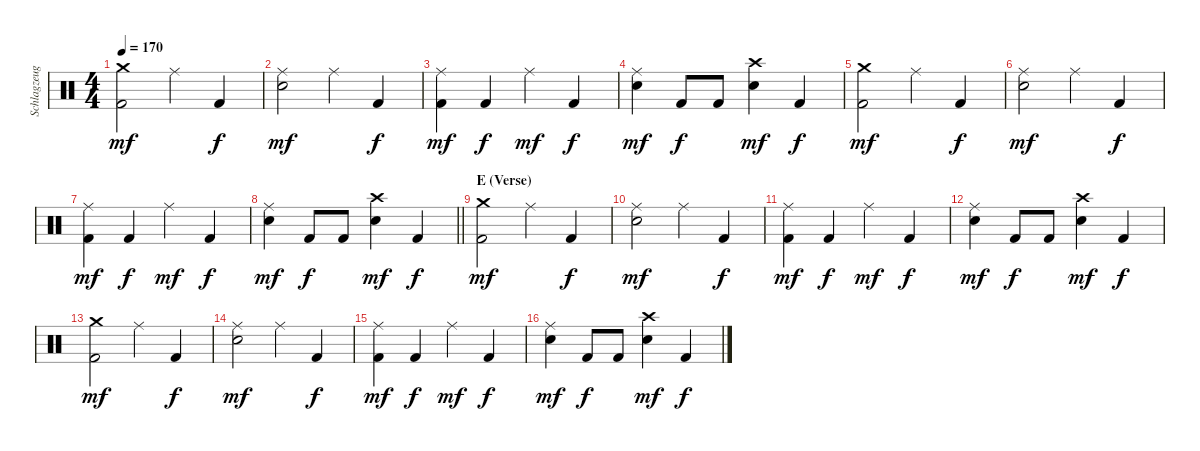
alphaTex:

\track ("Schlagzeug" "Schlagzeug") {instrument percussion}
\staff {score}
\articulation defaults
\ts (4 4)
\tempo 170
\clef neutral
\ks c
("Crash medium (hit)" "Kick (hit) 2").2{dy mf} "Ride (middle)".4 "Kick (hit) 2".4{dy f} |
("Ride (middle)" "Electric Snare (hit)").2{dy mf} "Ride (middle)".4 "Kick (hit) 2".4{dy f} |
("Ride (middle)" "Kick (hit) 2").4{dy mf} "Kick (hit) 2".4{dy f} "Ride (middle)".4{dy mf} "Kick (hit) 2".4{dy f} |
("Ride (middle)" "Electric Snare (hit)").4{dy mf} "Kick (hit) 2".8{dy f} "Kick (hit) 2".8 ("Crash high (hit)" "Electric Snare (hit)").4{dy mf} "Kick (hit) 2".4{dy f} |
("Crash medium (hit)" "Kick (hit) 2").2{dy mf} "Ride (middle)".4 "Kick (hit) 2".4{dy f} |
("Ride (middle)" "Electric Snare (hit)").2{dy mf} "Ride (middle)".4 "Kick (hit) 2".4{dy f} |
("Ride (middle)" "Kick (hit) 2").4{dy mf} "Kick (hit) 2".4{dy f} "Ride (middle)".4{dy mf} "Kick (hit) 2".4{dy f} |
\barLineRight lightlight
("Ride (middle)" "Electric Snare (hit)").4{dy mf} "Kick (hit) 2".8{dy f} "Kick (hit) 2".8 ("Crash high (hit)" "Electric Snare (hit)").4{dy mf} "Kick (hit) 2".4{dy f} |
\section ("" "E (Verse)  ")
("Crash medium (hit)" "Kick (hit) 2").2{dy mf} "Ride (middle)".4 "Kick (hit) 2".4{dy f} |
("Ride (middle)" "Electric Snare (hit)").2{dy mf} "Ride (middle)".4 "Kick (hit) 2".4{dy f} |
("Ride (middle)" "Kick (hit) 2").4{dy mf} "Kick (hit) 2".4{dy f} "Ride (middle)".4{dy mf} "Kick (hit) 2".4{dy f} |
("Ride (middle)" "Electric Snare (hit)").4{dy mf} "Kick (hit) 2".8{dy f} "Kick (hit) 2".8 ("Crash high (hit)" "Electric Snare (hit)").4{dy mf} "Kick (hit) 2".4{dy f} |
("Crash medium (hit)" "Kick (hit) 2").2{dy mf} "Ride (middle)".4 "Kick (hit) 2".4{dy f} |
("Ride (middle)" "Electric Snare (hit)").2{dy mf} "Ride (middle)".4 "Kick (hit) 2".4{dy f} |
("Ride (middle)" "Kick (hit) 2").4{dy mf} "Kick (hit) 2".4{dy f} "Ride (middle)".4{dy mf} "Kick (hit) 2".4{dy f} |
("Ride (middle)" "Electric Snare (hit)").4{dy mf} "Kick (hit) 2".8{dy f} "Kick (hit) 2".8 ("Crash high (hit)" "Electric Snare (hit)").4{dy mf} "Kick (hit) 2".4{dy f}
